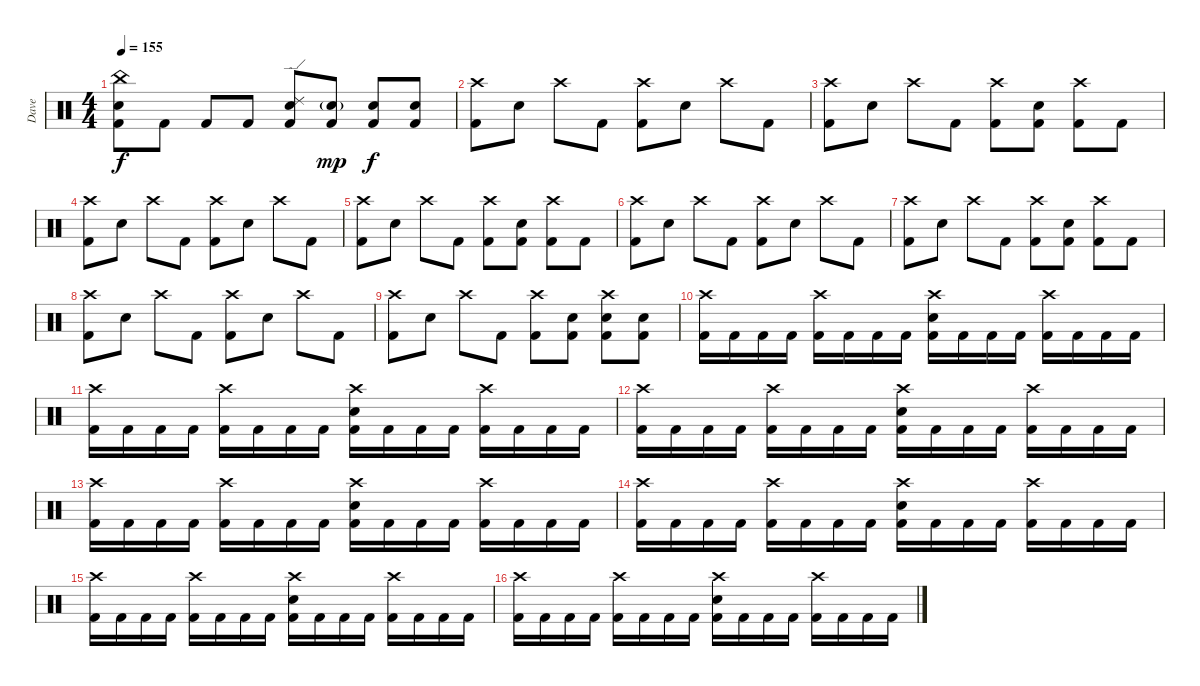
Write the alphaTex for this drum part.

\track ("Dave" "Dave") {instrument percussion}
\staff {score}
\articulation defaults
\ts (4 4)
\tempo 155
\clef neutral
\ks c
("China (hit)" "Snare (hit) 2" "Kick (hit) 2").8{dy f} "Kick (hit) 2".8 "Kick (hit) 2".8 "Kick (hit) 2".8 ("Ride (edge) 2" "Snare (hit) 2" "Kick (hit) 2").8 ("Snare (hit) 2"{g} "Kick (hit) 2").8{dy mp} ("Snare (hit) 2" "Kick (hit) 2").8{dy f} ("Snare (hit) 2" "Kick (hit) 2").8 |
("Crash high (hit)" "Kick (hit) 2").8 "Snare (hit) 2".8 "Crash high (hit)".8 "Kick (hit) 2".8 ("Crash high (hit)" "Kick (hit) 2").8 "Snare (hit) 2".8 "Crash high (hit)".8 "Kick (hit) 2".8 |
("Crash high (hit)" "Kick (hit) 2").8 "Snare (hit) 2".8 "Crash high (hit)".8 "Kick (hit) 2".8 ("Crash high (hit)" "Kick (hit) 2").8 ("Snare (hit) 2" "Kick (hit) 2").8 ("Crash high (hit)" "Kick (hit) 2").8 "Kick (hit) 2".8 |
("Crash high (hit)" "Kick (hit) 2").8 "Snare (hit) 2".8 "Crash high (hit)".8 "Kick (hit) 2".8 ("Crash high (hit)" "Kick (hit) 2").8 "Snare (hit) 2".8 "Crash high (hit)".8 "Kick (hit) 2".8 |
("Crash high (hit)" "Kick (hit) 2").8 "Snare (hit) 2".8 "Crash high (hit)".8 "Kick (hit) 2".8 ("Crash high (hit)" "Kick (hit) 2").8 ("Snare (hit) 2" "Kick (hit) 2").8 ("Crash high (hit)" "Kick (hit) 2").8 "Kick (hit) 2".8 |
("Crash high (hit)" "Kick (hit) 2").8 "Snare (hit) 2".8 "Crash high (hit)".8 "Kick (hit) 2".8 ("Crash high (hit)" "Kick (hit) 2").8 "Snare (hit) 2".8 "Crash high (hit)".8 "Kick (hit) 2".8 |
("Crash high (hit)" "Kick (hit) 2").8 "Snare (hit) 2".8 "Crash high (hit)".8 "Kick (hit) 2".8 ("Crash high (hit)" "Kick (hit) 2").8 ("Snare (hit) 2" "Kick (hit) 2").8 ("Crash high (hit)" "Kick (hit) 2").8 "Kick (hit) 2".8 |
("Crash high (hit)" "Kick (hit) 2").8 "Snare (hit) 2".8 "Crash high (hit)".8 "Kick (hit) 2".8 ("Crash high (hit)" "Kick (hit) 2").8 "Snare (hit) 2".8 "Crash high (hit)".8 "Kick (hit) 2".8 |
("Crash high (hit)" "Kick (hit) 2").8 "Snare (hit) 2".8 "Crash high (hit)".8 "Kick (hit) 2".8 ("Crash high (hit)" "Kick (hit) 2").8 ("Snare (hit) 2" "Kick (hit) 2").8 ("Crash high (hit)" "Snare (hit) 2" "Kick (hit) 2").8 ("Snare (hit) 2" "Kick (hit) 2").8 |
("Crash high (hit)" "Kick (hit) 2").16 "Kick (hit) 2".16 "Kick (hit) 2".16 "Kick (hit) 2".16 ("Crash high (hit)" "Kick (hit) 2").16 "Kick (hit) 2".16 "Kick (hit) 2".16 "Kick (hit) 2".16 ("Crash high (hit)" "Snare (hit) 2" "Kick (hit) 2").16 "Kick (hit) 2".16 "Kick (hit) 2".16 "Kick (hit) 2".16 ("Crash high (hit)" "Kick (hit) 2").16 "Kick (hit) 2".16 "Kick (hit) 2".16 "Kick (hit) 2".16 |
("Crash high (hit)" "Kick (hit) 2").16 "Kick (hit) 2".16 "Kick (hit) 2".16 "Kick (hit) 2".16 ("Crash high (hit)" "Kick (hit) 2").16 "Kick (hit) 2".16 "Kick (hit) 2".16 "Kick (hit) 2".16 ("Crash high (hit)" "Snare (hit) 2" "Kick (hit) 2").16 "Kick (hit) 2".16 "Kick (hit) 2".16 "Kick (hit) 2".16 ("Crash high (hit)" "Kick (hit) 2").16 "Kick (hit) 2".16 "Kick (hit) 2".16 "Kick (hit) 2".16 |
("Crash high (hit)" "Kick (hit) 2").16 "Kick (hit) 2".16 "Kick (hit) 2".16 "Kick (hit) 2".16 ("Crash high (hit)" "Kick (hit) 2").16 "Kick (hit) 2".16 "Kick (hit) 2".16 "Kick (hit) 2".16 ("Crash high (hit)" "Snare (hit) 2" "Kick (hit) 2").16 "Kick (hit) 2".16 "Kick (hit) 2".16 "Kick (hit) 2".16 ("Crash high (hit)" "Kick (hit) 2").16 "Kick (hit) 2".16 "Kick (hit) 2".16 "Kick (hit) 2".16 |
("Crash high (hit)" "Kick (hit) 2").16 "Kick (hit) 2".16 "Kick (hit) 2".16 "Kick (hit) 2".16 ("Crash high (hit)" "Kick (hit) 2").16 "Kick (hit) 2".16 "Kick (hit) 2".16 "Kick (hit) 2".16 ("Crash high (hit)" "Snare (hit) 2" "Kick (hit) 2").16 "Kick (hit) 2".16 "Kick (hit) 2".16 "Kick (hit) 2".16 ("Crash high (hit)" "Kick (hit) 2").16 "Kick (hit) 2".16 "Kick (hit) 2".16 "Kick (hit) 2".16 |
("Crash high (hit)" "Kick (hit) 2").16 "Kick (hit) 2".16 "Kick (hit) 2".16 "Kick (hit) 2".16 ("Crash high (hit)" "Kick (hit) 2").16 "Kick (hit) 2".16 "Kick (hit) 2".16 "Kick (hit) 2".16 ("Crash high (hit)" "Snare (hit) 2" "Kick (hit) 2").16 "Kick (hit) 2".16 "Kick (hit) 2".16 "Kick (hit) 2".16 ("Crash high (hit)" "Kick (hit) 2").16 "Kick (hit) 2".16 "Kick (hit) 2".16 "Kick (hit) 2".16 |
("Crash high (hit)" "Kick (hit) 2").16 "Kick (hit) 2".16 "Kick (hit) 2".16 "Kick (hit) 2".16 ("Crash high (hit)" "Kick (hit) 2").16 "Kick (hit) 2".16 "Kick (hit) 2".16 "Kick (hit) 2".16 ("Crash high (hit)" "Snare (hit) 2" "Kick (hit) 2").16 "Kick (hit) 2".16 "Kick (hit) 2".16 "Kick (hit) 2".16 ("Crash high (hit)" "Kick (hit) 2").16 "Kick (hit) 2".16 "Kick (hit) 2".16 "Kick (hit) 2".16 |
("Crash high (hit)" "Kick (hit) 2").16 "Kick (hit) 2".16 "Kick (hit) 2".16 "Kick (hit) 2".16 ("Crash high (hit)" "Kick (hit) 2").16 "Kick (hit) 2".16 "Kick (hit) 2".16 "Kick (hit) 2".16 ("Crash high (hit)" "Snare (hit) 2" "Kick (hit) 2").16 "Kick (hit) 2".16 "Kick (hit) 2".16 "Kick (hit) 2".16 ("Crash high (hit)" "Kick (hit) 2").16 "Kick (hit) 2".16 "Kick (hit) 2".16 "Kick (hit) 2".16
